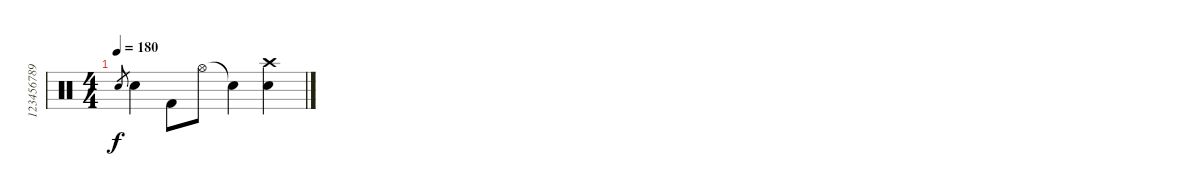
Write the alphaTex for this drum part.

\track ("123456789" "123456789") {instrument percussion}
\staff {score}
\articulation defaults
\ts (4 4)
\tempo 180
\clef neutral
\ks c "Electric Snare (hit)".8{gr dy f} "Electric Snare (hit)".4 "Kick (hit) 2".8 "Hi-Hat (open)".8 "Snare (hit)"{t}.4
("Crash high (hit)" "Electric Snare (hit)").4
